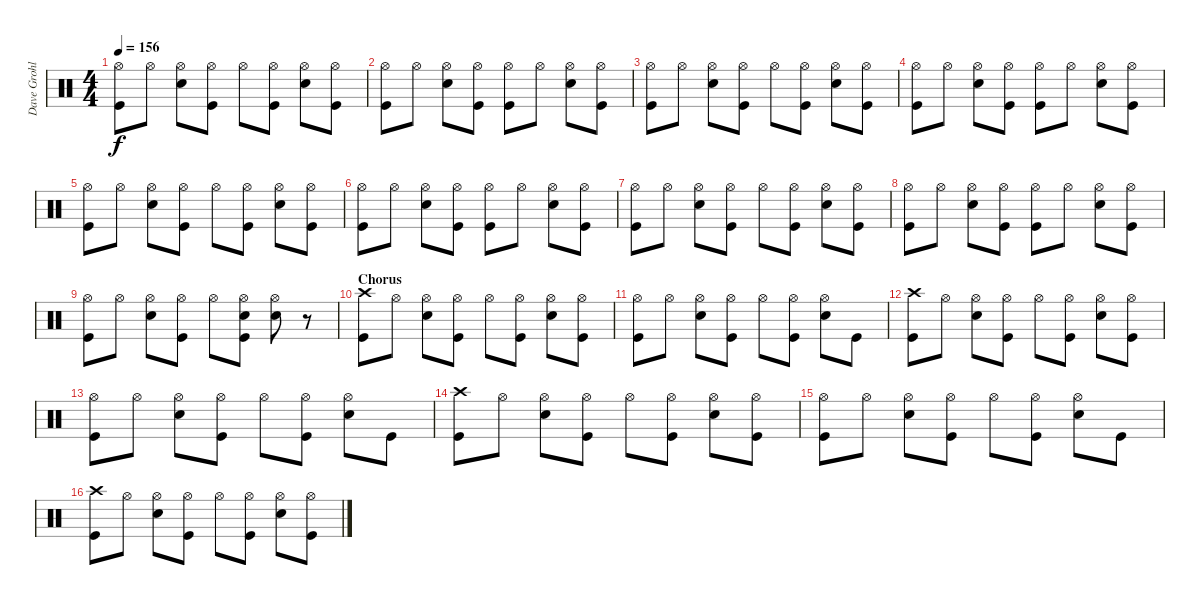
\track ("Dave Grohl - Drums" "Dave Grohl") {instrument percussion}
\staff {score}
\articulation defaults
\ts (4 4)
\tempo 156
\clef neutral
\ks c
("Hi-Hat (open)" "Kick (hit)").8{dy f} "Hi-Hat (open)".8 ("Hi-Hat (open)" "Snare (hit) 2").8 ("Hi-Hat (open)" "Kick (hit)").8 "Hi-Hat (open)".8 ("Hi-Hat (open)" "Kick (hit)").8 ("Hi-Hat (open)" "Snare (hit) 2").8 ("Hi-Hat (open)" "Kick (hit)").8 |
("Hi-Hat (open)" "Kick (hit)").8 "Hi-Hat (open)".8 ("Hi-Hat (open)" "Snare (hit) 2").8 ("Hi-Hat (open)" "Kick (hit)").8 ("Hi-Hat (open)" "Kick (hit)").8 "Hi-Hat (open)".8 ("Hi-Hat (open)" "Snare (hit) 2").8 ("Hi-Hat (open)" "Kick (hit)").8 |
("Hi-Hat (open)" "Kick (hit)").8 "Hi-Hat (open)".8 ("Hi-Hat (open)" "Snare (hit) 2").8 ("Hi-Hat (open)" "Kick (hit)").8 "Hi-Hat (open)".8 ("Hi-Hat (open)" "Kick (hit)").8 ("Hi-Hat (open)" "Snare (hit) 2").8 ("Hi-Hat (open)" "Kick (hit)").8 |
("Hi-Hat (open)" "Kick (hit)").8 "Hi-Hat (open)".8 ("Hi-Hat (open)" "Snare (hit) 2").8 ("Hi-Hat (open)" "Kick (hit)").8 ("Hi-Hat (open)" "Kick (hit)").8 "Hi-Hat (open)".8 ("Hi-Hat (open)" "Snare (hit) 2").8 ("Hi-Hat (open)" "Kick (hit)").8 |
("Hi-Hat (open)" "Kick (hit)").8 "Hi-Hat (open)".8 ("Hi-Hat (open)" "Snare (hit) 2").8 ("Hi-Hat (open)" "Kick (hit)").8 "Hi-Hat (open)".8 ("Hi-Hat (open)" "Kick (hit)").8 ("Hi-Hat (open)" "Snare (hit) 2").8 ("Hi-Hat (open)" "Kick (hit)").8 |
("Hi-Hat (open)" "Kick (hit)").8 "Hi-Hat (open)".8 ("Hi-Hat (open)" "Snare (hit) 2").8 ("Hi-Hat (open)" "Kick (hit)").8 ("Hi-Hat (open)" "Kick (hit)").8 "Hi-Hat (open)".8 ("Hi-Hat (open)" "Snare (hit) 2").8 ("Hi-Hat (open)" "Kick (hit)").8 |
("Hi-Hat (open)" "Kick (hit)").8 "Hi-Hat (open)".8 ("Hi-Hat (open)" "Snare (hit) 2").8 ("Hi-Hat (open)" "Kick (hit)").8 "Hi-Hat (open)".8 ("Hi-Hat (open)" "Kick (hit)").8 ("Hi-Hat (open)" "Snare (hit) 2").8 ("Hi-Hat (open)" "Kick (hit)").8 |
("Hi-Hat (open)" "Kick (hit)").8 "Hi-Hat (open)".8 ("Hi-Hat (open)" "Snare (hit) 2").8 ("Hi-Hat (open)" "Kick (hit)").8 ("Hi-Hat (open)" "Kick (hit)").8 "Hi-Hat (open)".8 ("Hi-Hat (open)" "Snare (hit) 2").8 ("Hi-Hat (open)" "Kick (hit)").8 |
("Hi-Hat (open)" "Kick (hit)").8 "Hi-Hat (open)".8 ("Hi-Hat (open)" "Snare (hit) 2").8 ("Hi-Hat (open)" "Kick (hit)").8 "Hi-Hat (open)".8 ("Hi-Hat (open)" "Snare (hit) 2" "Kick (hit)").8 ("Hi-Hat (open)" "Snare (hit) 2").8 r.8 |
\section ("" "Chorus")
("Crash high (hit)" "Kick (hit)").8 "Hi-Hat (open)".8 ("Hi-Hat (open)" "Snare (hit) 2").8 ("Hi-Hat (open)" "Kick (hit)").8 "Hi-Hat (open)".8 ("Hi-Hat (open)" "Kick (hit)").8 ("Hi-Hat (open)" "Snare (hit) 2").8 ("Hi-Hat (open)" "Kick (hit)").8 |
("Hi-Hat (open)" "Kick (hit)").8 "Hi-Hat (open)".8 ("Hi-Hat (open)" "Snare (hit) 2").8 ("Hi-Hat (open)" "Kick (hit)").8 "Hi-Hat (open)".8 ("Hi-Hat (open)" "Kick (hit)").8 ("Hi-Hat (open)" "Snare (hit) 2").8 "Kick (hit)".8 |
("Crash high (hit)" "Kick (hit)").8 "Hi-Hat (open)".8 ("Hi-Hat (open)" "Snare (hit) 2").8 ("Hi-Hat (open)" "Kick (hit)").8 "Hi-Hat (open)".8 ("Hi-Hat (open)" "Kick (hit)").8 ("Hi-Hat (open)" "Snare (hit) 2").8 ("Hi-Hat (open)" "Kick (hit)").8 |
("Hi-Hat (open)" "Kick (hit)").8 "Hi-Hat (open)".8 ("Hi-Hat (open)" "Snare (hit) 2").8 ("Hi-Hat (open)" "Kick (hit)").8 "Hi-Hat (open)".8 ("Hi-Hat (open)" "Kick (hit)").8 ("Hi-Hat (open)" "Snare (hit) 2").8 "Kick (hit)".8 |
("Crash high (hit)" "Kick (hit)").8 "Hi-Hat (open)".8 ("Hi-Hat (open)" "Snare (hit) 2").8 ("Hi-Hat (open)" "Kick (hit)").8 "Hi-Hat (open)".8 ("Hi-Hat (open)" "Kick (hit)").8 ("Hi-Hat (open)" "Snare (hit) 2").8 ("Hi-Hat (open)" "Kick (hit)").8 |
("Hi-Hat (open)" "Kick (hit)").8 "Hi-Hat (open)".8 ("Hi-Hat (open)" "Snare (hit) 2").8 ("Hi-Hat (open)" "Kick (hit)").8 "Hi-Hat (open)".8 ("Hi-Hat (open)" "Kick (hit)").8 ("Hi-Hat (open)" "Snare (hit) 2").8 "Kick (hit)".8 |
("Crash high (hit)" "Kick (hit)").8 "Hi-Hat (open)".8 ("Hi-Hat (open)" "Snare (hit) 2").8 ("Hi-Hat (open)" "Kick (hit)").8 "Hi-Hat (open)".8 ("Hi-Hat (open)" "Kick (hit)").8 ("Hi-Hat (open)" "Snare (hit) 2").8 ("Hi-Hat (open)" "Kick (hit)").8
